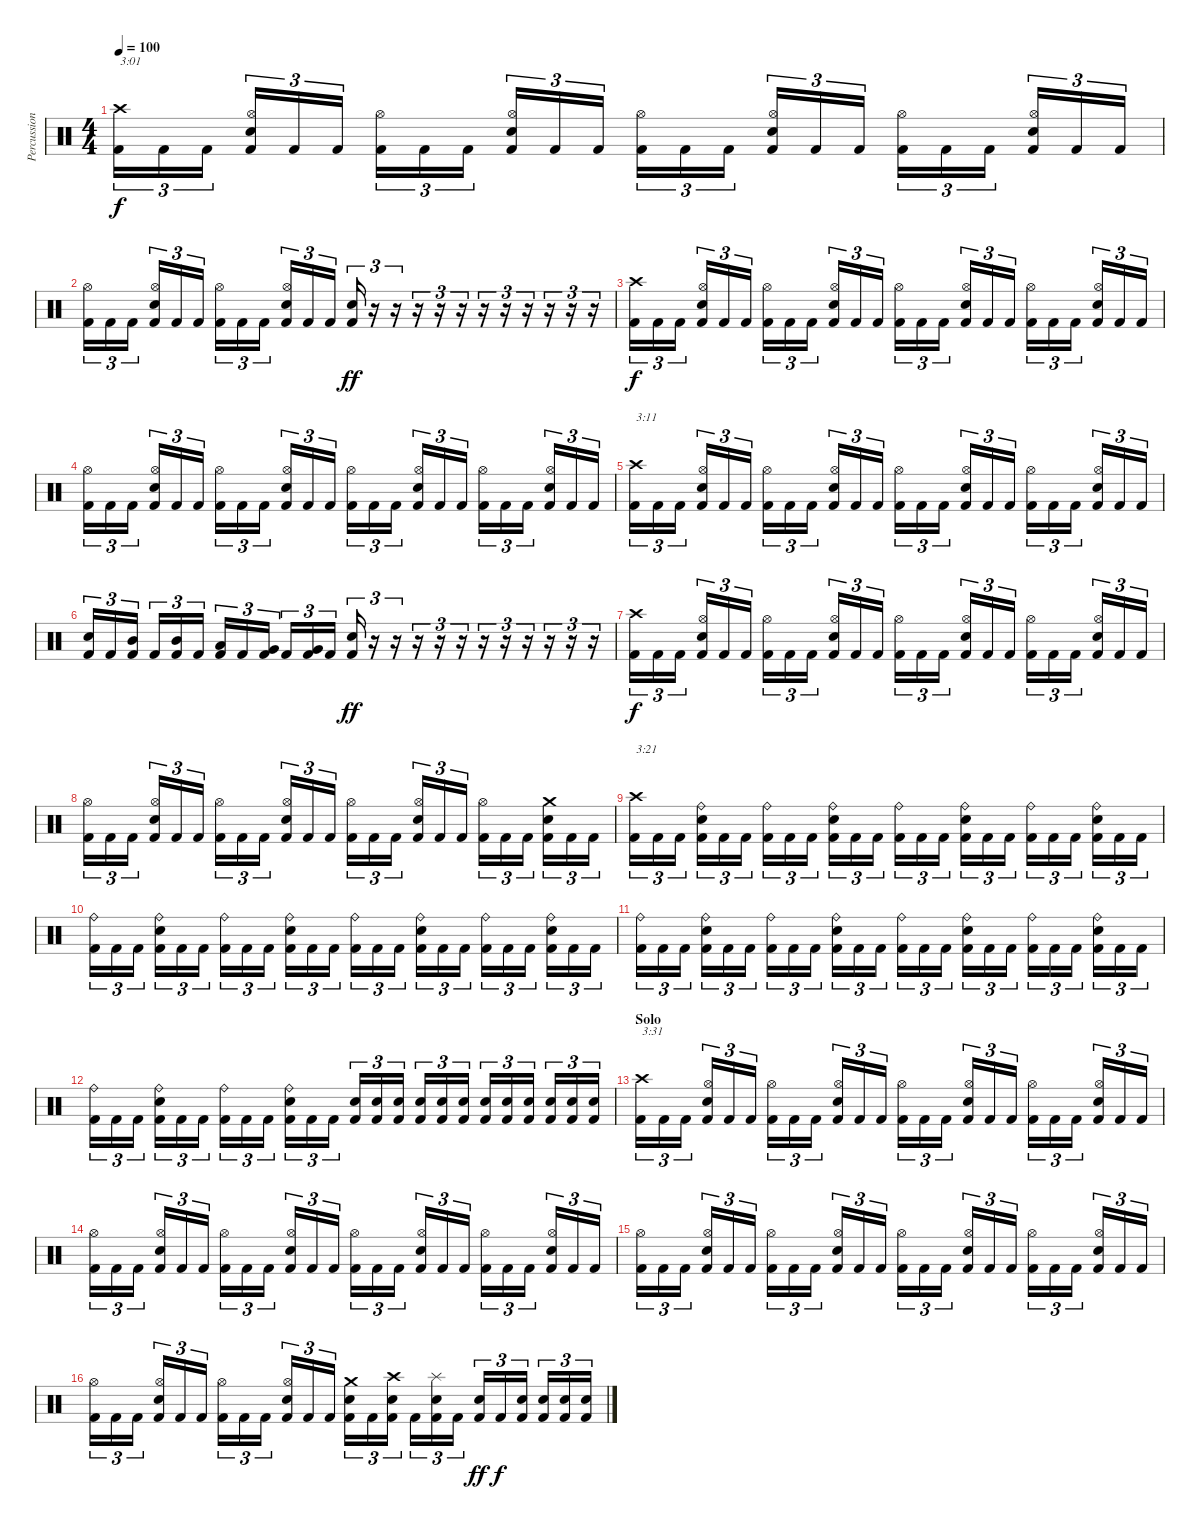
\track ("Percussion" "Percussion") {instrument percussion}
\staff {score}
\articulation defaults
\ts (4 4)
\tempo 100
\clef neutral
\ks c
("Crash high (hit)" "Kick (hit) 2").16{tu (3 2) txt "3:01" dy f} "Kick (hit) 2".16{tu (3 2)} "Kick (hit) 2".16{tu (3 2)} ("Hi-Hat (open)" "Snare (hit) 2" "Kick (hit) 2").16{tu (3 2)} "Kick (hit) 2".16{tu (3 2)} "Kick (hit) 2".16{tu (3 2)} ("Hi-Hat (open)" "Kick (hit) 2").16{tu (3 2)} "Kick (hit) 2".16{tu (3 2)} "Kick (hit) 2".16{tu (3 2)} ("Hi-Hat (open)" "Snare (hit) 2" "Kick (hit) 2").16{tu (3 2)} "Kick (hit) 2".16{tu (3 2)} "Kick (hit) 2".16{tu (3 2)} ("Hi-Hat (open)" "Kick (hit) 2").16{tu (3 2)} "Kick (hit) 2".16{tu (3 2)} "Kick (hit) 2".16{tu (3 2)} ("Hi-Hat (open)" "Snare (hit) 2" "Kick (hit) 2").16{tu (3 2)} "Kick (hit) 2".16{tu (3 2)} "Kick (hit) 2".16{tu (3 2)} ("Hi-Hat (open)" "Kick (hit) 2").16{tu (3 2)} "Kick (hit) 2".16{tu (3 2)} "Kick (hit) 2".16{tu (3 2)} ("Hi-Hat (open)" "Snare (hit) 2" "Kick (hit) 2").16{tu (3 2)} "Kick (hit) 2".16{tu (3 2)} "Kick (hit) 2".16{tu (3 2)} |
("Hi-Hat (open)" "Kick (hit) 2").16{tu (3 2)} "Kick (hit) 2".16{tu (3 2)} "Kick (hit) 2".16{tu (3 2)} ("Hi-Hat (open)" "Snare (hit) 2" "Kick (hit) 2").16{tu (3 2)} "Kick (hit) 2".16{tu (3 2)} "Kick (hit) 2".16{tu (3 2)} ("Hi-Hat (open)" "Kick (hit) 2").16{tu (3 2)} "Kick (hit) 2".16{tu (3 2)} "Kick (hit) 2".16{tu (3 2)} ("Hi-Hat (open)" "Snare (hit) 2" "Kick (hit) 2").16{tu (3 2)} "Kick (hit) 2".16{tu (3 2)} "Kick (hit) 2".16{tu (3 2)} ("Snare (hit) 2" "Kick (hit) 2").16{tu (3 2) dy ff} r.16{tu (3 2)} r.16{tu (3 2)} r.16{tu (3 2)} r.16{tu (3 2)} r.16{tu (3 2)} r.16{tu (3 2)} r.16{tu (3 2)} r.16{tu (3 2)} r.16{tu (3 2)} r.16{tu (3 2)} r.16{tu (3 2)} |
("Crash high (hit)" "Kick (hit) 2").16{tu (3 2) dy f} "Kick (hit) 2".16{tu (3 2)} "Kick (hit) 2".16{tu (3 2)} ("Hi-Hat (open)" "Snare (hit) 2" "Kick (hit) 2").16{tu (3 2)} "Kick (hit) 2".16{tu (3 2)} "Kick (hit) 2".16{tu (3 2)} ("Hi-Hat (open)" "Kick (hit) 2").16{tu (3 2)} "Kick (hit) 2".16{tu (3 2)} "Kick (hit) 2".16{tu (3 2)} ("Hi-Hat (open)" "Snare (hit) 2" "Kick (hit) 2").16{tu (3 2)} "Kick (hit) 2".16{tu (3 2)} "Kick (hit) 2".16{tu (3 2)} ("Hi-Hat (open)" "Kick (hit) 2").16{tu (3 2)} "Kick (hit) 2".16{tu (3 2)} "Kick (hit) 2".16{tu (3 2)} ("Hi-Hat (open)" "Snare (hit) 2" "Kick (hit) 2").16{tu (3 2)} "Kick (hit) 2".16{tu (3 2)} "Kick (hit) 2".16{tu (3 2)} ("Hi-Hat (open)" "Kick (hit) 2").16{tu (3 2)} "Kick (hit) 2".16{tu (3 2)} "Kick (hit) 2".16{tu (3 2)} ("Hi-Hat (open)" "Snare (hit) 2" "Kick (hit) 2").16{tu (3 2)} "Kick (hit) 2".16{tu (3 2)} "Kick (hit) 2".16{tu (3 2)} |
("Hi-Hat (open)" "Kick (hit) 2").16{tu (3 2)} "Kick (hit) 2".16{tu (3 2)} "Kick (hit) 2".16{tu (3 2)} ("Hi-Hat (open)" "Snare (hit) 2" "Kick (hit) 2").16{tu (3 2)} "Kick (hit) 2".16{tu (3 2)} "Kick (hit) 2".16{tu (3 2)} ("Hi-Hat (open)" "Kick (hit) 2").16{tu (3 2)} "Kick (hit) 2".16{tu (3 2)} "Kick (hit) 2".16{tu (3 2)} ("Hi-Hat (open)" "Snare (hit) 2" "Kick (hit) 2").16{tu (3 2)} "Kick (hit) 2".16{tu (3 2)} "Kick (hit) 2".16{tu (3 2)} ("Hi-Hat (open)" "Kick (hit) 2").16{tu (3 2)} "Kick (hit) 2".16{tu (3 2)} "Kick (hit) 2".16{tu (3 2)} ("Hi-Hat (open)" "Snare (hit) 2" "Kick (hit) 2").16{tu (3 2)} "Kick (hit) 2".16{tu (3 2)} "Kick (hit) 2".16{tu (3 2)} ("Hi-Hat (open)" "Kick (hit) 2").16{tu (3 2)} "Kick (hit) 2".16{tu (3 2)} "Kick (hit) 2".16{tu (3 2)} ("Hi-Hat (open)" "Snare (hit) 2" "Kick (hit) 2").16{tu (3 2)} "Kick (hit) 2".16{tu (3 2)} "Kick (hit) 2".16{tu (3 2)} |
("Crash high (hit)" "Kick (hit) 2").16{tu (3 2) txt "3:11"} "Kick (hit) 2".16{tu (3 2)} "Kick (hit) 2".16{tu (3 2)} ("Hi-Hat (open)" "Snare (hit) 2" "Kick (hit) 2").16{tu (3 2)} "Kick (hit) 2".16{tu (3 2)} "Kick (hit) 2".16{tu (3 2)} ("Hi-Hat (open)" "Kick (hit) 2").16{tu (3 2)} "Kick (hit) 2".16{tu (3 2)} "Kick (hit) 2".16{tu (3 2)} ("Hi-Hat (open)" "Snare (hit) 2" "Kick (hit) 2").16{tu (3 2)} "Kick (hit) 2".16{tu (3 2)} "Kick (hit) 2".16{tu (3 2)} ("Hi-Hat (open)" "Kick (hit) 2").16{tu (3 2)} "Kick (hit) 2".16{tu (3 2)} "Kick (hit) 2".16{tu (3 2)} ("Hi-Hat (open)" "Snare (hit) 2" "Kick (hit) 2").16{tu (3 2)} "Kick (hit) 2".16{tu (3 2)} "Kick (hit) 2".16{tu (3 2)} ("Hi-Hat (open)" "Kick (hit) 2").16{tu (3 2)} "Kick (hit) 2".16{tu (3 2)} "Kick (hit) 2".16{tu (3 2)} ("Hi-Hat (open)" "Snare (hit) 2" "Kick (hit) 2").16{tu (3 2)} "Kick (hit) 2".16{tu (3 2)} "Kick (hit) 2".16{tu (3 2)} |
("Snare (hit) 2" "Kick (hit) 2").16{tu (3 2)} "Kick (hit) 2".16{tu (3 2)} ("Mid Tom (hit)" "Kick (hit) 2").16{tu (3 2)} "Kick (hit) 2".16{tu (3 2)} ("Mid Tom (hit)" "Kick (hit) 2").16{tu (3 2)} "Kick (hit) 2".16{tu (3 2)} ("Low Tom (hit)" "Kick (hit) 2").16{tu (3 2)} "Kick (hit) 2".16{tu (3 2)} ("Very Low Tom (hit)" "Kick (hit) 2").16{tu (3 2)} "Kick (hit) 2".16{tu (3 2)} ("Very Low Tom (hit)" "Kick (hit) 2").16{tu (3 2)} "Kick (hit) 2".16{tu (3 2)} ("Snare (hit) 2" "Kick (hit) 2").16{tu (3 2) dy ff} r.16{tu (3 2)} r.16{tu (3 2)} r.16{tu (3 2)} r.16{tu (3 2)} r.16{tu (3 2)} r.16{tu (3 2)} r.16{tu (3 2)} r.16{tu (3 2)} r.16{tu (3 2)} r.16{tu (3 2)} r.16{tu (3 2)} |
("Crash high (hit)" "Kick (hit) 2").16{tu (3 2) dy f} "Kick (hit) 2".16{tu (3 2)} "Kick (hit) 2".16{tu (3 2)} ("Hi-Hat (open)" "Snare (hit) 2" "Kick (hit) 2").16{tu (3 2)} "Kick (hit) 2".16{tu (3 2)} "Kick (hit) 2".16{tu (3 2)} ("Hi-Hat (open)" "Kick (hit) 2").16{tu (3 2)} "Kick (hit) 2".16{tu (3 2)} "Kick (hit) 2".16{tu (3 2)} ("Hi-Hat (open)" "Snare (hit) 2" "Kick (hit) 2").16{tu (3 2)} "Kick (hit) 2".16{tu (3 2)} "Kick (hit) 2".16{tu (3 2)} ("Hi-Hat (open)" "Kick (hit) 2").16{tu (3 2)} "Kick (hit) 2".16{tu (3 2)} "Kick (hit) 2".16{tu (3 2)} ("Hi-Hat (open)" "Snare (hit) 2" "Kick (hit) 2").16{tu (3 2)} "Kick (hit) 2".16{tu (3 2)} "Kick (hit) 2".16{tu (3 2)} ("Hi-Hat (open)" "Kick (hit) 2").16{tu (3 2)} "Kick (hit) 2".16{tu (3 2)} "Kick (hit) 2".16{tu (3 2)} ("Hi-Hat (open)" "Snare (hit) 2" "Kick (hit) 2").16{tu (3 2)} "Kick (hit) 2".16{tu (3 2)} "Kick (hit) 2".16{tu (3 2)} |
("Hi-Hat (open)" "Kick (hit) 2").16{tu (3 2)} "Kick (hit) 2".16{tu (3 2)} "Kick (hit) 2".16{tu (3 2)} ("Hi-Hat (open)" "Snare (hit) 2" "Kick (hit) 2").16{tu (3 2)} "Kick (hit) 2".16{tu (3 2)} "Kick (hit) 2".16{tu (3 2)} ("Hi-Hat (open)" "Kick (hit) 2").16{tu (3 2)} "Kick (hit) 2".16{tu (3 2)} "Kick (hit) 2".16{tu (3 2)} ("Hi-Hat (open)" "Snare (hit) 2" "Kick (hit) 2").16{tu (3 2)} "Kick (hit) 2".16{tu (3 2)} "Kick (hit) 2".16{tu (3 2)} ("Hi-Hat (open)" "Kick (hit) 2").16{tu (3 2)} "Kick (hit) 2".16{tu (3 2)} "Kick (hit) 2".16{tu (3 2)} ("Hi-Hat (open)" "Snare (hit) 2" "Kick (hit) 2").16{tu (3 2)} "Kick (hit) 2".16{tu (3 2)} "Kick (hit) 2".16{tu (3 2)} ("Hi-Hat (open)" "Kick (hit) 2").16{tu (3 2)} "Kick (hit) 2".16{tu (3 2)} "Kick (hit) 2".16{tu (3 2)} ("Crash medium (hit)" "Snare (hit) 2" "Kick (hit) 2").16{tu (3 2)} "Kick (hit) 2".16{tu (3 2)} "Kick (hit) 2".16{tu (3 2)} |
("Crash high (hit)" "Kick (hit) 2").16{tu (3 2) txt "3:21"} "Kick (hit) 2".16{tu (3 2)} "Kick (hit) 2".16{tu (3 2)} ("Ride (bell)" "Snare (hit) 2" "Kick (hit) 2").16{tu (3 2)} "Kick (hit) 2".16{tu (3 2)} "Kick (hit) 2".16{tu (3 2)} ("Ride (bell)" "Kick (hit) 2").16{tu (3 2)} "Kick (hit) 2".16{tu (3 2)} "Kick (hit) 2".16{tu (3 2)} ("Ride (bell)" "Snare (hit) 2" "Kick (hit) 2").16{tu (3 2)} "Kick (hit) 2".16{tu (3 2)} "Kick (hit) 2".16{tu (3 2)} ("Ride (bell)" "Kick (hit) 2").16{tu (3 2)} "Kick (hit) 2".16{tu (3 2)} "Kick (hit) 2".16{tu (3 2)} ("Ride (bell)" "Snare (hit) 2" "Kick (hit) 2").16{tu (3 2)} "Kick (hit) 2".16{tu (3 2)} "Kick (hit) 2".16{tu (3 2)} ("Ride (bell)" "Kick (hit) 2").16{tu (3 2)} "Kick (hit) 2".16{tu (3 2)} "Kick (hit) 2".16{tu (3 2)} ("Ride (bell)" "Snare (hit) 2" "Kick (hit) 2").16{tu (3 2)} "Kick (hit) 2".16{tu (3 2)} "Kick (hit) 2".16{tu (3 2)} |
("Ride (bell)" "Kick (hit) 2").16{tu (3 2)} "Kick (hit) 2".16{tu (3 2)} "Kick (hit) 2".16{tu (3 2)} ("Ride (bell)" "Snare (hit) 2" "Kick (hit) 2").16{tu (3 2)} "Kick (hit) 2".16{tu (3 2)} "Kick (hit) 2".16{tu (3 2)} ("Ride (bell)" "Kick (hit) 2").16{tu (3 2)} "Kick (hit) 2".16{tu (3 2)} "Kick (hit) 2".16{tu (3 2)} ("Ride (bell)" "Snare (hit) 2" "Kick (hit) 2").16{tu (3 2)} "Kick (hit) 2".16{tu (3 2)} "Kick (hit) 2".16{tu (3 2)} ("Ride (bell)" "Kick (hit) 2").16{tu (3 2)} "Kick (hit) 2".16{tu (3 2)} "Kick (hit) 2".16{tu (3 2)} ("Ride (bell)" "Snare (hit) 2" "Kick (hit) 2").16{tu (3 2)} "Kick (hit) 2".16{tu (3 2)} "Kick (hit) 2".16{tu (3 2)} ("Ride (bell)" "Kick (hit) 2").16{tu (3 2)} "Kick (hit) 2".16{tu (3 2)} "Kick (hit) 2".16{tu (3 2)} ("Ride (bell)" "Snare (hit) 2" "Kick (hit) 2").16{tu (3 2)} "Kick (hit) 2".16{tu (3 2)} "Kick (hit) 2".16{tu (3 2)} |
("Ride (bell)" "Kick (hit) 2").16{tu (3 2)} "Kick (hit) 2".16{tu (3 2)} "Kick (hit) 2".16{tu (3 2)} ("Ride (bell)" "Snare (hit) 2" "Kick (hit) 2").16{tu (3 2)} "Kick (hit) 2".16{tu (3 2)} "Kick (hit) 2".16{tu (3 2)} ("Ride (bell)" "Kick (hit) 2").16{tu (3 2)} "Kick (hit) 2".16{tu (3 2)} "Kick (hit) 2".16{tu (3 2)} ("Ride (bell)" "Snare (hit) 2" "Kick (hit) 2").16{tu (3 2)} "Kick (hit) 2".16{tu (3 2)} "Kick (hit) 2".16{tu (3 2)} ("Ride (bell)" "Kick (hit) 2").16{tu (3 2)} "Kick (hit) 2".16{tu (3 2)} "Kick (hit) 2".16{tu (3 2)} ("Ride (bell)" "Snare (hit) 2" "Kick (hit) 2").16{tu (3 2)} "Kick (hit) 2".16{tu (3 2)} "Kick (hit) 2".16{tu (3 2)} ("Ride (bell)" "Kick (hit) 2").16{tu (3 2)} "Kick (hit) 2".16{tu (3 2)} "Kick (hit) 2".16{tu (3 2)} ("Ride (bell)" "Snare (hit) 2" "Kick (hit) 2").16{tu (3 2)} "Kick (hit) 2".16{tu (3 2)} "Kick (hit) 2".16{tu (3 2)} |
("Ride (bell)" "Kick (hit) 2").16{tu (3 2)} "Kick (hit) 2".16{tu (3 2)} "Kick (hit) 2".16{tu (3 2)} ("Ride (bell)" "Snare (hit) 2" "Kick (hit) 2").16{tu (3 2)} "Kick (hit) 2".16{tu (3 2)} "Kick (hit) 2".16{tu (3 2)} ("Ride (bell)" "Kick (hit) 2").16{tu (3 2)} "Kick (hit) 2".16{tu (3 2)} "Kick (hit) 2".16{tu (3 2)} ("Ride (bell)" "Snare (hit) 2" "Kick (hit) 2").16{tu (3 2)} "Kick (hit) 2".16{tu (3 2)} "Kick (hit) 2".16{tu (3 2)} ("Snare (hit) 2" "Kick (hit) 2").16{tu (3 2)} ("Snare (hit) 2" "Kick (hit) 2").16{tu (3 2)} ("Snare (hit) 2" "Kick (hit) 2").16{tu (3 2)} ("Snare (hit) 2" "Kick (hit) 2").16{tu (3 2)} ("Snare (hit) 2" "Kick (hit) 2").16{tu (3 2)} ("Snare (hit) 2" "Kick (hit) 2").16{tu (3 2)} ("Snare (hit) 2" "Kick (hit) 2").16{tu (3 2)} ("Snare (hit) 2" "Kick (hit) 2").16{tu (3 2)} ("Snare (hit) 2" "Kick (hit) 2").16{tu (3 2)} ("Snare (hit) 2" "Kick (hit) 2").16{tu (3 2)} ("Snare (hit) 2" "Kick (hit) 2").16{tu (3 2)} ("Snare (hit) 2" "Kick (hit) 2").16{tu (3 2)} |
\section ("" "Solo")
("Crash high (hit)" "Kick (hit) 2").16{tu (3 2) txt "3:31"} "Kick (hit) 2".16{tu (3 2)} "Kick (hit) 2".16{tu (3 2)} ("Hi-Hat (open)" "Snare (hit) 2" "Kick (hit) 2").16{tu (3 2)} "Kick (hit) 2".16{tu (3 2)} "Kick (hit) 2".16{tu (3 2)} ("Hi-Hat (open)" "Kick (hit) 2").16{tu (3 2)} "Kick (hit) 2".16{tu (3 2)} "Kick (hit) 2".16{tu (3 2)} ("Hi-Hat (open)" "Snare (hit) 2" "Kick (hit) 2").16{tu (3 2)} "Kick (hit) 2".16{tu (3 2)} "Kick (hit) 2".16{tu (3 2)} ("Hi-Hat (open)" "Kick (hit) 2").16{tu (3 2)} "Kick (hit) 2".16{tu (3 2)} "Kick (hit) 2".16{tu (3 2)} ("Hi-Hat (open)" "Snare (hit) 2" "Kick (hit) 2").16{tu (3 2)} "Kick (hit) 2".16{tu (3 2)} "Kick (hit) 2".16{tu (3 2)} ("Hi-Hat (open)" "Kick (hit) 2").16{tu (3 2)} "Kick (hit) 2".16{tu (3 2)} "Kick (hit) 2".16{tu (3 2)} ("Hi-Hat (open)" "Snare (hit) 2" "Kick (hit) 2").16{tu (3 2)} "Kick (hit) 2".16{tu (3 2)} "Kick (hit) 2".16{tu (3 2)} |
("Hi-Hat (open)" "Kick (hit) 2").16{tu (3 2)} "Kick (hit) 2".16{tu (3 2)} "Kick (hit) 2".16{tu (3 2)} ("Hi-Hat (open)" "Snare (hit) 2" "Kick (hit) 2").16{tu (3 2)} "Kick (hit) 2".16{tu (3 2)} "Kick (hit) 2".16{tu (3 2)} ("Hi-Hat (open)" "Kick (hit) 2").16{tu (3 2)} "Kick (hit) 2".16{tu (3 2)} "Kick (hit) 2".16{tu (3 2)} ("Hi-Hat (open)" "Snare (hit) 2" "Kick (hit) 2").16{tu (3 2)} "Kick (hit) 2".16{tu (3 2)} "Kick (hit) 2".16{tu (3 2)} ("Hi-Hat (open)" "Kick (hit) 2").16{tu (3 2)} "Kick (hit) 2".16{tu (3 2)} "Kick (hit) 2".16{tu (3 2)} ("Hi-Hat (open)" "Snare (hit) 2" "Kick (hit) 2").16{tu (3 2)} "Kick (hit) 2".16{tu (3 2)} "Kick (hit) 2".16{tu (3 2)} ("Hi-Hat (open)" "Kick (hit) 2").16{tu (3 2)} "Kick (hit) 2".16{tu (3 2)} "Kick (hit) 2".16{tu (3 2)} ("Hi-Hat (open)" "Snare (hit) 2" "Kick (hit) 2").16{tu (3 2)} "Kick (hit) 2".16{tu (3 2)} "Kick (hit) 2".16{tu (3 2)} |
("Hi-Hat (open)" "Kick (hit) 2").16{tu (3 2)} "Kick (hit) 2".16{tu (3 2)} "Kick (hit) 2".16{tu (3 2)} ("Hi-Hat (open)" "Snare (hit) 2" "Kick (hit) 2").16{tu (3 2)} "Kick (hit) 2".16{tu (3 2)} "Kick (hit) 2".16{tu (3 2)} ("Hi-Hat (open)" "Kick (hit) 2").16{tu (3 2)} "Kick (hit) 2".16{tu (3 2)} "Kick (hit) 2".16{tu (3 2)} ("Hi-Hat (open)" "Snare (hit) 2" "Kick (hit) 2").16{tu (3 2)} "Kick (hit) 2".16{tu (3 2)} "Kick (hit) 2".16{tu (3 2)} ("Hi-Hat (open)" "Kick (hit) 2").16{tu (3 2)} "Kick (hit) 2".16{tu (3 2)} "Kick (hit) 2".16{tu (3 2)} ("Hi-Hat (open)" "Snare (hit) 2" "Kick (hit) 2").16{tu (3 2)} "Kick (hit) 2".16{tu (3 2)} "Kick (hit) 2".16{tu (3 2)} ("Hi-Hat (open)" "Kick (hit) 2").16{tu (3 2)} "Kick (hit) 2".16{tu (3 2)} "Kick (hit) 2".16{tu (3 2)} ("Hi-Hat (open)" "Snare (hit) 2" "Kick (hit) 2").16{tu (3 2)} "Kick (hit) 2".16{tu (3 2)} "Kick (hit) 2".16{tu (3 2)} |
("Hi-Hat (open)" "Kick (hit) 2").16{tu (3 2)} "Kick (hit) 2".16{tu (3 2)} "Kick (hit) 2".16{tu (3 2)} ("Hi-Hat (open)" "Snare (hit) 2" "Kick (hit) 2").16{tu (3 2)} "Kick (hit) 2".16{tu (3 2)} "Kick (hit) 2".16{tu (3 2)} ("Hi-Hat (open)" "Kick (hit) 2").16{tu (3 2)} "Kick (hit) 2".16{tu (3 2)} "Kick (hit) 2".16{tu (3 2)} ("Hi-Hat (open)" "Snare (hit) 2" "Kick (hit) 2").16{tu (3 2)} "Kick (hit) 2".16{tu (3 2)} "Kick (hit) 2".16{tu (3 2)} ("Crash medium (hit)" "Snare (hit) 2" "Kick (hit) 2").16{tu (3 2)} "Kick (hit) 2".16{tu (3 2)} ("Crash high (hit)" "Snare (hit) 2" "Kick (hit) 2").16{tu (3 2)} "Kick (hit) 2".16{tu (3 2)} ("Splash (hit)" "Snare (hit) 2" "Kick (hit) 2").16{tu (3 2)} "Kick (hit) 2".16{tu (3 2)} ("Snare (hit) 2" "Kick (hit) 2").16{tu (3 2) dy ff} "Kick (hit) 2".16{tu (3 2) dy f} ("Snare (hit) 2" "Kick (hit) 2").16{tu (3 2)} ("Snare (hit) 2" "Kick (hit) 2").16{tu (3 2)} ("Snare (hit) 2" "Kick (hit) 2").16{tu (3 2)} ("Snare (hit) 2" "Kick (hit) 2").16{tu (3 2)}
